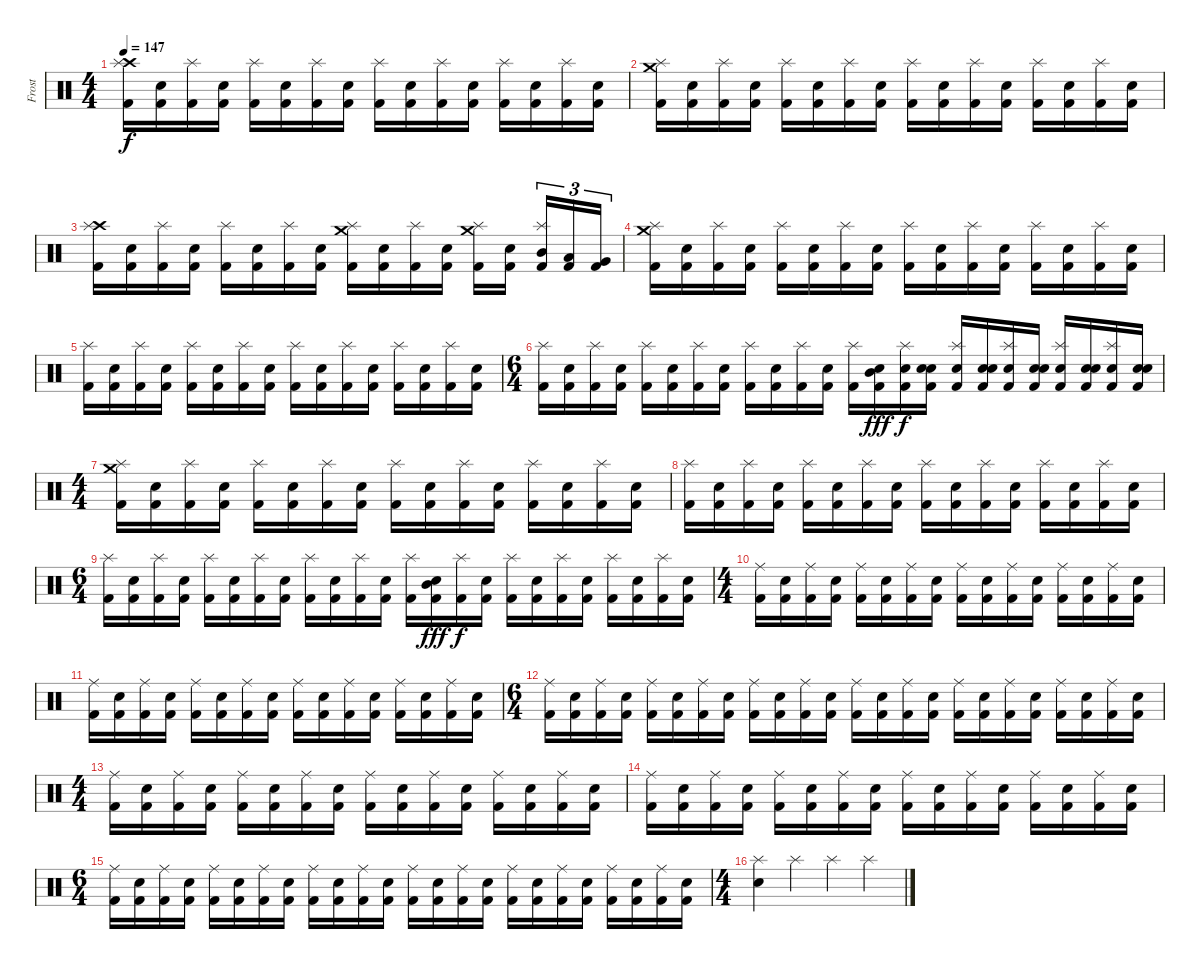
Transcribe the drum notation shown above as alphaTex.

\track ("Frost" "Frost") {instrument percussion}
\staff {score}
\articulation defaults
\ts (4 4)
\tempo 147
\clef neutral
\ks c
("Kick (hit) 2" "Crash high (hit)" "Splash (hit)").16{dy f} ("Kick (hit) 2" "Electric Snare (hit)").16 ("Kick (hit) 2" "Splash (hit)").16 ("Kick (hit) 2" "Electric Snare (hit)").16 ("Kick (hit) 2" "Splash (hit)").16 ("Kick (hit) 2" "Electric Snare (hit)").16 ("Kick (hit) 2" "Splash (hit)").16 ("Kick (hit) 2" "Electric Snare (hit)").16 ("Kick (hit) 2" "Splash (hit)").16 ("Kick (hit) 2" "Electric Snare (hit)").16 ("Kick (hit) 2" "Splash (hit)").16 ("Kick (hit) 2" "Electric Snare (hit)").16 ("Kick (hit) 2" "Splash (hit)").16 ("Kick (hit) 2" "Electric Snare (hit)").16 ("Kick (hit) 2" "Splash (hit)").16 ("Kick (hit) 2" "Electric Snare (hit)").16 |
("Kick (hit) 2" "Crash medium (hit)" "Splash (hit)").16 ("Kick (hit) 2" "Electric Snare (hit)").16 ("Kick (hit) 2" "Splash (hit)").16 ("Kick (hit) 2" "Electric Snare (hit)").16 ("Kick (hit) 2" "Splash (hit)").16 ("Kick (hit) 2" "Electric Snare (hit)").16 ("Kick (hit) 2" "Splash (hit)").16 ("Kick (hit) 2" "Electric Snare (hit)").16 ("Kick (hit) 2" "Splash (hit)").16 ("Kick (hit) 2" "Electric Snare (hit)").16 ("Kick (hit) 2" "Splash (hit)").16 ("Kick (hit) 2" "Electric Snare (hit)").16 ("Kick (hit) 2" "Splash (hit)").16 ("Kick (hit) 2" "Electric Snare (hit)").16 ("Kick (hit) 2" "Splash (hit)").16 ("Kick (hit) 2" "Electric Snare (hit)").16 |
("Kick (hit) 2" "Crash high (hit)" "Splash (hit)").16 ("Kick (hit) 2" "Electric Snare (hit)").16 ("Kick (hit) 2" "Splash (hit)").16 ("Kick (hit) 2" "Electric Snare (hit)").16 ("Kick (hit) 2" "Splash (hit)").16 ("Kick (hit) 2" "Electric Snare (hit)").16 ("Kick (hit) 2" "Splash (hit)").16 ("Kick (hit) 2" "Electric Snare (hit)").16 ("Kick (hit) 2" "Crash medium (hit)" "Splash (hit)").16 ("Kick (hit) 2" "Electric Snare (hit)").16 ("Kick (hit) 2" "Splash (hit)").16 ("Kick (hit) 2" "Electric Snare (hit)").16 ("Kick (hit) 2" "Crash medium (hit)" "Splash (hit)").16 ("Kick (hit) 2" "Electric Snare (hit)").16 ("Kick (hit) 2" "Mid Tom (hit)" "Splash (hit)").16{tu (3 2)} ("Kick (hit) 2" "Low Tom (hit)").16{tu (3 2)} ("Kick (hit) 2" "Very Low Tom (hit)").16{tu (3 2)} |
("Kick (hit) 2" "Crash medium (hit)" "Splash (hit)").16 ("Kick (hit) 2" "Electric Snare (hit)").16 ("Kick (hit) 2" "Splash (hit)").16 ("Kick (hit) 2" "Electric Snare (hit)").16 ("Kick (hit) 2" "Splash (hit)").16 ("Kick (hit) 2" "Electric Snare (hit)").16 ("Kick (hit) 2" "Splash (hit)").16 ("Kick (hit) 2" "Electric Snare (hit)").16 ("Kick (hit) 2" "Splash (hit)").16 ("Kick (hit) 2" "Electric Snare (hit)").16 ("Kick (hit) 2" "Splash (hit)").16 ("Kick (hit) 2" "Electric Snare (hit)").16 ("Kick (hit) 2" "Splash (hit)").16 ("Kick (hit) 2" "Electric Snare (hit)").16 ("Kick (hit) 2" "Splash (hit)").16 ("Kick (hit) 2" "Electric Snare (hit)").16 |
("Kick (hit) 2" "Splash (hit)").16 ("Kick (hit) 2" "Electric Snare (hit)").16 ("Kick (hit) 2" "Splash (hit)").16 ("Kick (hit) 2" "Electric Snare (hit)").16 ("Kick (hit) 2" "Splash (hit)").16 ("Kick (hit) 2" "Electric Snare (hit)").16 ("Kick (hit) 2" "Splash (hit)").16 ("Kick (hit) 2" "Electric Snare (hit)").16 ("Kick (hit) 2" "Splash (hit)").16 ("Kick (hit) 2" "Electric Snare (hit)").16 ("Kick (hit) 2" "Splash (hit)").16 ("Kick (hit) 2" "Electric Snare (hit)").16 ("Kick (hit) 2" "Splash (hit)").16 ("Kick (hit) 2" "Electric Snare (hit)").16 ("Kick (hit) 2" "Splash (hit)").16 ("Kick (hit) 2" "Electric Snare (hit)").16 |
\ts (6 4)
("Kick (hit) 2" "Splash (hit)").16 ("Kick (hit) 2" "Electric Snare (hit)").16 ("Kick (hit) 2" "Splash (hit)").16 ("Kick (hit) 2" "Electric Snare (hit)").16 ("Kick (hit) 2" "Splash (hit)").16 ("Kick (hit) 2" "Electric Snare (hit)").16 ("Kick (hit) 2" "Splash (hit)").16 ("Kick (hit) 2" "Electric Snare (hit)").16 ("Kick (hit) 2" "Splash (hit)").16 ("Kick (hit) 2" "Electric Snare (hit)").16 ("Kick (hit) 2" "Splash (hit)").16 ("Kick (hit) 2" "Electric Snare (hit)").16 ("Kick (hit) 2" "Splash (hit)").16 ("Kick (hit) 2" "Mid Tom (hit)" "Electric Snare (hit)").16{dy fff} ("Kick (hit) 2" "Snare (hit) 2" "Splash (hit)").16{dy f} ("Kick (hit) 2" "Snare (hit) 2" "Electric Snare (hit)").16 ("Kick (hit) 2" "Snare (hit) 2" "Splash (hit)").16 ("Kick (hit) 2" "Snare (hit) 2" "Electric Snare (hit)").16 ("Kick (hit) 2" "Snare (hit) 2" "Splash (hit)").16 ("Kick (hit) 2" "Snare (hit) 2" "Electric Snare (hit)").16 ("Kick (hit) 2" "Snare (hit) 2" "Splash (hit)").16 ("Kick (hit) 2" "Snare (hit) 2" "Electric Snare (hit)").16 ("Kick (hit) 2" "Snare (hit) 2" "Splash (hit)").16 ("Kick (hit) 2" "Snare (hit) 2" "Electric Snare (hit)").16 |
\ts (4 4)
("Kick (hit) 2" "Crash medium (hit)" "Splash (hit)").16 ("Kick (hit) 2" "Electric Snare (hit)").16 ("Kick (hit) 2" "Splash (hit)").16 ("Kick (hit) 2" "Electric Snare (hit)").16 ("Kick (hit) 2" "Splash (hit)").16 ("Kick (hit) 2" "Electric Snare (hit)").16 ("Kick (hit) 2" "Splash (hit)").16 ("Kick (hit) 2" "Electric Snare (hit)").16 ("Kick (hit) 2" "Splash (hit)").16 ("Kick (hit) 2" "Electric Snare (hit)").16 ("Kick (hit) 2" "Splash (hit)").16 ("Kick (hit) 2" "Electric Snare (hit)").16 ("Kick (hit) 2" "Splash (hit)").16 ("Kick (hit) 2" "Electric Snare (hit)").16 ("Kick (hit) 2" "Splash (hit)").16 ("Kick (hit) 2" "Electric Snare (hit)").16 |
("Kick (hit) 2" "Splash (hit)").16 ("Kick (hit) 2" "Electric Snare (hit)").16 ("Kick (hit) 2" "Splash (hit)").16 ("Kick (hit) 2" "Electric Snare (hit)").16 ("Kick (hit) 2" "Splash (hit)").16 ("Kick (hit) 2" "Electric Snare (hit)").16 ("Kick (hit) 2" "Splash (hit)").16 ("Kick (hit) 2" "Electric Snare (hit)").16 ("Kick (hit) 2" "Splash (hit)").16 ("Kick (hit) 2" "Electric Snare (hit)").16 ("Kick (hit) 2" "Splash (hit)").16 ("Kick (hit) 2" "Electric Snare (hit)").16 ("Kick (hit) 2" "Splash (hit)").16 ("Kick (hit) 2" "Electric Snare (hit)").16 ("Kick (hit) 2" "Splash (hit)").16 ("Kick (hit) 2" "Electric Snare (hit)").16 |
\ts (6 4)
("Kick (hit) 2" "Splash (hit)").16 ("Kick (hit) 2" "Electric Snare (hit)").16 ("Kick (hit) 2" "Splash (hit)").16 ("Kick (hit) 2" "Electric Snare (hit)").16 ("Kick (hit) 2" "Splash (hit)").16 ("Kick (hit) 2" "Electric Snare (hit)").16 ("Kick (hit) 2" "Splash (hit)").16 ("Kick (hit) 2" "Electric Snare (hit)").16 ("Kick (hit) 2" "Splash (hit)").16 ("Kick (hit) 2" "Electric Snare (hit)").16 ("Kick (hit) 2" "Splash (hit)").16 ("Kick (hit) 2" "Electric Snare (hit)").16 ("Kick (hit) 2" "Splash (hit)").16 ("Kick (hit) 2" "Mid Tom (hit)" "Electric Snare (hit)").16{dy fff} ("Kick (hit) 2" "Splash (hit)").16{dy f} ("Kick (hit) 2" "Electric Snare (hit)").16 ("Kick (hit) 2" "Splash (hit)").16 ("Kick (hit) 2" "Electric Snare (hit)").16 ("Kick (hit) 2" "Splash (hit)").16 ("Kick (hit) 2" "Electric Snare (hit)").16 ("Kick (hit) 2" "Splash (hit)").16 ("Kick (hit) 2" "Electric Snare (hit)").16 ("Kick (hit) 2" "Splash (hit)").16 ("Kick (hit) 2" "Electric Snare (hit)").16 |
\ts (4 4)
("Kick (hit) 2" "Ride (middle)").16 ("Kick (hit) 2" "Electric Snare (hit)").16 ("Kick (hit) 2" "Ride (middle)").16 ("Kick (hit) 2" "Electric Snare (hit)").16 ("Kick (hit) 2" "Ride (middle)").16 ("Kick (hit) 2" "Electric Snare (hit)").16 ("Kick (hit) 2" "Ride (middle)").16 ("Kick (hit) 2" "Electric Snare (hit)").16 ("Kick (hit) 2" "Ride (middle)").16 ("Kick (hit) 2" "Electric Snare (hit)").16 ("Kick (hit) 2" "Ride (middle)").16 ("Kick (hit) 2" "Electric Snare (hit)").16 ("Kick (hit) 2" "Ride (middle)").16 ("Kick (hit) 2" "Electric Snare (hit)").16 ("Kick (hit) 2" "Ride (middle)").16 ("Kick (hit) 2" "Electric Snare (hit)").16 |
("Kick (hit) 2" "Ride (middle)").16 ("Kick (hit) 2" "Electric Snare (hit)").16 ("Kick (hit) 2" "Ride (middle)").16 ("Kick (hit) 2" "Electric Snare (hit)").16 ("Kick (hit) 2" "Ride (middle)").16 ("Kick (hit) 2" "Electric Snare (hit)").16 ("Kick (hit) 2" "Ride (middle)").16 ("Kick (hit) 2" "Electric Snare (hit)").16 ("Kick (hit) 2" "Ride (middle)").16 ("Kick (hit) 2" "Electric Snare (hit)").16 ("Kick (hit) 2" "Ride (middle)").16 ("Kick (hit) 2" "Electric Snare (hit)").16 ("Kick (hit) 2" "Ride (middle)").16 ("Kick (hit) 2" "Electric Snare (hit)").16 ("Kick (hit) 2" "Ride (middle)").16 ("Kick (hit) 2" "Electric Snare (hit)").16 |
\ts (6 4)
("Kick (hit) 2" "Ride (middle)").16 ("Kick (hit) 2" "Electric Snare (hit)").16 ("Kick (hit) 2" "Ride (middle)").16 ("Kick (hit) 2" "Electric Snare (hit)").16 ("Kick (hit) 2" "Ride (middle)").16 ("Kick (hit) 2" "Electric Snare (hit)").16 ("Kick (hit) 2" "Ride (middle)").16 ("Kick (hit) 2" "Electric Snare (hit)").16 ("Kick (hit) 2" "Ride (middle)").16 ("Kick (hit) 2" "Electric Snare (hit)").16 ("Kick (hit) 2" "Ride (middle)").16 ("Kick (hit) 2" "Electric Snare (hit)").16 ("Kick (hit) 2" "Ride (middle)").16 ("Kick (hit) 2" "Electric Snare (hit)").16 ("Kick (hit) 2" "Ride (middle)").16 ("Kick (hit) 2" "Electric Snare (hit)").16 ("Kick (hit) 2" "Ride (middle)").16 ("Kick (hit) 2" "Electric Snare (hit)").16 ("Kick (hit) 2" "Ride (middle)").16 ("Kick (hit) 2" "Electric Snare (hit)").16 ("Kick (hit) 2" "Ride (middle)").16 ("Kick (hit) 2" "Electric Snare (hit)").16 ("Kick (hit) 2" "Ride (middle)").16 ("Kick (hit) 2" "Electric Snare (hit)").16 |
\ts (4 4)
("Kick (hit) 2" "Ride (middle)").16 ("Kick (hit) 2" "Electric Snare (hit)").16 ("Kick (hit) 2" "Ride (middle)").16 ("Kick (hit) 2" "Electric Snare (hit)").16 ("Kick (hit) 2" "Ride (middle)").16 ("Kick (hit) 2" "Electric Snare (hit)").16 ("Kick (hit) 2" "Ride (middle)").16 ("Kick (hit) 2" "Electric Snare (hit)").16 ("Kick (hit) 2" "Ride (middle)").16 ("Kick (hit) 2" "Electric Snare (hit)").16 ("Kick (hit) 2" "Ride (middle)").16 ("Kick (hit) 2" "Electric Snare (hit)").16 ("Kick (hit) 2" "Ride (middle)").16 ("Kick (hit) 2" "Electric Snare (hit)").16 ("Kick (hit) 2" "Ride (middle)").16 ("Kick (hit) 2" "Electric Snare (hit)").16 |
("Kick (hit) 2" "Ride (middle)").16 ("Kick (hit) 2" "Electric Snare (hit)").16 ("Kick (hit) 2" "Ride (middle)").16 ("Kick (hit) 2" "Electric Snare (hit)").16 ("Kick (hit) 2" "Ride (middle)").16 ("Kick (hit) 2" "Electric Snare (hit)").16 ("Kick (hit) 2" "Ride (middle)").16 ("Kick (hit) 2" "Electric Snare (hit)").16 ("Kick (hit) 2" "Ride (middle)").16 ("Kick (hit) 2" "Electric Snare (hit)").16 ("Kick (hit) 2" "Ride (middle)").16 ("Kick (hit) 2" "Electric Snare (hit)").16 ("Kick (hit) 2" "Ride (middle)").16 ("Kick (hit) 2" "Electric Snare (hit)").16 ("Kick (hit) 2" "Ride (middle)").16 ("Kick (hit) 2" "Electric Snare (hit)").16 |
\ts (6 4)
("Kick (hit) 2" "Ride (middle)").16 ("Kick (hit) 2" "Electric Snare (hit)").16 ("Kick (hit) 2" "Ride (middle)").16 ("Kick (hit) 2" "Electric Snare (hit)").16 ("Kick (hit) 2" "Ride (middle)").16 ("Kick (hit) 2" "Electric Snare (hit)").16 ("Kick (hit) 2" "Ride (middle)").16 ("Kick (hit) 2" "Electric Snare (hit)").16 ("Kick (hit) 2" "Ride (middle)").16 ("Kick (hit) 2" "Electric Snare (hit)").16 ("Kick (hit) 2" "Ride (middle)").16 ("Kick (hit) 2" "Electric Snare (hit)").16 ("Kick (hit) 2" "Ride (middle)").16 ("Kick (hit) 2" "Electric Snare (hit)").16 ("Kick (hit) 2" "Ride (middle)").16 ("Kick (hit) 2" "Electric Snare (hit)").16 ("Kick (hit) 2" "Ride (middle)").16 ("Kick (hit) 2" "Electric Snare (hit)").16 ("Kick (hit) 2" "Ride (middle)").16 ("Kick (hit) 2" "Electric Snare (hit)").16 ("Kick (hit) 2" "Ride (middle)").16 ("Kick (hit) 2" "Electric Snare (hit)").16 ("Kick (hit) 2" "Ride (middle)").16 ("Kick (hit) 2" "Electric Snare (hit)").16 |
\ts (4 4)
("Splash (hit)" "Electric Snare (hit)").4 "Splash (hit)".4 "Splash (hit)".4 "Splash (hit)".4
